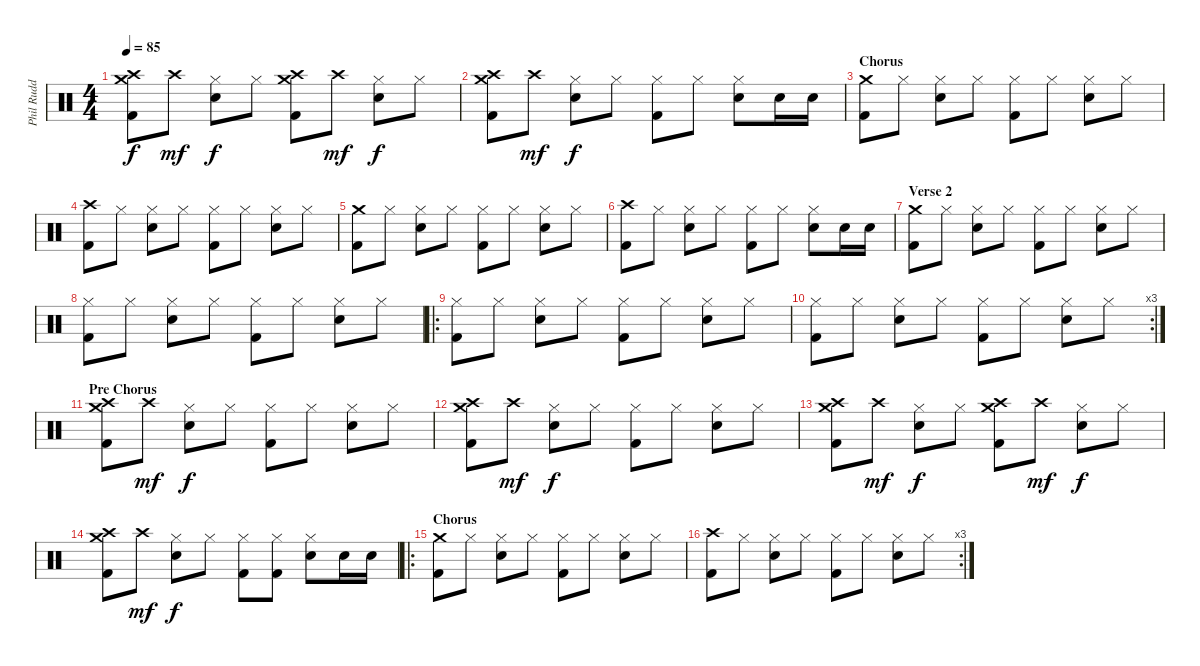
\track ("Phil Rudd" "Phil Rudd") {instrument percussion}
\staff {score}
\articulation defaults
\ts (4 4)
\tempo 85
\clef neutral
\ks c
("Crash high (hit)" "Crash medium (hit)" "Kick (hit) 2").8{dy f} "Crash high (hit)".8{dy mf} ("Hi-Hat (closed)" "Snare (hit) 2").8{dy f} "Hi-Hat (closed)".8 ("Crash high (hit)" "Crash medium (hit)" "Kick (hit) 2").8 "Crash high (hit)".8{dy mf} ("Hi-Hat (closed)" "Snare (hit) 2").8{dy f} "Hi-Hat (closed)".8 |
("Crash high (hit)" "Crash medium (hit)" "Kick (hit) 2").8 "Crash high (hit)".8{dy mf} ("Hi-Hat (closed)" "Snare (hit) 2").8{dy f} "Hi-Hat (closed)".8 ("Hi-Hat (closed)" "Kick (hit) 2").8 "Hi-Hat (closed)".8 ("Hi-Hat (closed)" "Snare (hit) 2").8 "Snare (hit) 2".16 "Snare (hit) 2".16 |
\section ("" "Chorus")
("Crash medium (hit)" "Kick (hit) 2").8 "Hi-Hat (closed)".8 ("Hi-Hat (closed)" "Snare (hit) 2").8 "Hi-Hat (closed)".8 ("Hi-Hat (closed)" "Kick (hit) 2").8 "Hi-Hat (closed)".8 ("Hi-Hat (closed)" "Snare (hit) 2").8 "Hi-Hat (closed)".8 |
("Crash high (hit)" "Kick (hit) 2").8 "Hi-Hat (closed)".8 ("Hi-Hat (closed)" "Snare (hit) 2").8 "Hi-Hat (closed)".8 ("Hi-Hat (closed)" "Kick (hit) 2").8 "Hi-Hat (closed)".8 ("Hi-Hat (closed)" "Snare (hit) 2").8 "Hi-Hat (closed)".8 |
("Crash medium (hit)" "Kick (hit) 2").8 "Hi-Hat (closed)".8 ("Hi-Hat (closed)" "Snare (hit) 2").8 "Hi-Hat (closed)".8 ("Hi-Hat (closed)" "Kick (hit) 2").8 "Hi-Hat (closed)".8 ("Hi-Hat (closed)" "Snare (hit) 2").8 "Hi-Hat (closed)".8 |
("Crash high (hit)" "Kick (hit) 2").8 "Hi-Hat (closed)".8 ("Hi-Hat (closed)" "Snare (hit) 2").8 "Hi-Hat (closed)".8 ("Hi-Hat (closed)" "Kick (hit) 2").8 "Hi-Hat (closed)".8 ("Hi-Hat (closed)" "Snare (hit) 2").8 "Snare (hit) 2".16 "Snare (hit) 2".16 |
\section ("" "Verse 2")
("Crash medium (hit)" "Kick (hit) 2").8 "Hi-Hat (closed)".8 ("Hi-Hat (closed)" "Snare (hit) 2").8 "Hi-Hat (closed)".8 ("Hi-Hat (closed)" "Kick (hit) 2").8 "Hi-Hat (closed)".8 ("Hi-Hat (closed)" "Snare (hit) 2").8 "Hi-Hat (closed)".8 |
("Hi-Hat (closed)" "Kick (hit) 2").8 "Hi-Hat (closed)".8 ("Hi-Hat (closed)" "Snare (hit) 2").8 "Hi-Hat (closed)".8 ("Hi-Hat (closed)" "Kick (hit) 2").8 "Hi-Hat (closed)".8 ("Hi-Hat (closed)" "Snare (hit) 2").8 "Hi-Hat (closed)".8 |
\ro
("Hi-Hat (closed)" "Kick (hit) 2").8 "Hi-Hat (closed)".8 ("Hi-Hat (closed)" "Snare (hit) 2").8 "Hi-Hat (closed)".8 ("Hi-Hat (closed)" "Kick (hit) 2").8 "Hi-Hat (closed)".8 ("Hi-Hat (closed)" "Snare (hit) 2").8 "Hi-Hat (closed)".8 |
\rc 3
("Hi-Hat (closed)" "Kick (hit) 2").8 "Hi-Hat (closed)".8 ("Hi-Hat (closed)" "Snare (hit) 2").8 "Hi-Hat (closed)".8 ("Hi-Hat (closed)" "Kick (hit) 2").8 "Hi-Hat (closed)".8 ("Hi-Hat (closed)" "Snare (hit) 2").8 "Hi-Hat (closed)".8 |
\section ("" "Pre Chorus")
("Crash high (hit)" "Crash medium (hit)" "Kick (hit) 2").8 "Crash high (hit)".8{dy mf} ("Hi-Hat (closed)" "Snare (hit) 2").8{dy f} "Hi-Hat (closed)".8 ("Hi-Hat (closed)" "Kick (hit) 2").8 "Hi-Hat (closed)".8 ("Hi-Hat (closed)" "Snare (hit) 2").8 "Hi-Hat (closed)".8 |
("Crash high (hit)" "Crash medium (hit)" "Kick (hit) 2").8 "Crash high (hit)".8{dy mf} ("Hi-Hat (closed)" "Snare (hit) 2").8{dy f} "Hi-Hat (closed)".8 ("Hi-Hat (closed)" "Kick (hit) 2").8 "Hi-Hat (closed)".8 ("Hi-Hat (closed)" "Snare (hit) 2").8 "Hi-Hat (closed)".8 |
("Crash high (hit)" "Crash medium (hit)" "Kick (hit) 2").8 "Crash high (hit)".8{dy mf} ("Hi-Hat (closed)" "Snare (hit) 2").8{dy f} "Hi-Hat (closed)".8 ("Crash high (hit)" "Crash medium (hit)" "Kick (hit) 2").8 "Crash high (hit)".8{dy mf} ("Hi-Hat (closed)" "Snare (hit) 2").8{dy f} "Hi-Hat (closed)".8 |
("Crash high (hit)" "Crash medium (hit)" "Kick (hit) 2").8 "Crash high (hit)".8{dy mf} ("Hi-Hat (closed)" "Snare (hit) 2").8{dy f} "Hi-Hat (closed)".8 ("Hi-Hat (closed)" "Kick (hit) 2").8 ("Hi-Hat (closed)" "Kick (hit) 2").8 ("Hi-Hat (closed)" "Snare (hit) 2").8 "Snare (hit) 2".16 "Snare (hit) 2".16 |
\ro
\section ("" "Chorus")
("Crash medium (hit)" "Kick (hit) 2").8 "Hi-Hat (closed)".8 ("Hi-Hat (closed)" "Snare (hit) 2").8 "Hi-Hat (closed)".8 ("Hi-Hat (closed)" "Kick (hit) 2").8 "Hi-Hat (closed)".8 ("Hi-Hat (closed)" "Snare (hit) 2").8 "Hi-Hat (closed)".8 |
\rc 3
("Crash high (hit)" "Kick (hit) 2").8 "Hi-Hat (closed)".8 ("Hi-Hat (closed)" "Snare (hit) 2").8 "Hi-Hat (closed)".8 ("Hi-Hat (closed)" "Kick (hit) 2").8 "Hi-Hat (closed)".8 ("Hi-Hat (closed)" "Snare (hit) 2").8 "Hi-Hat (closed)".8
